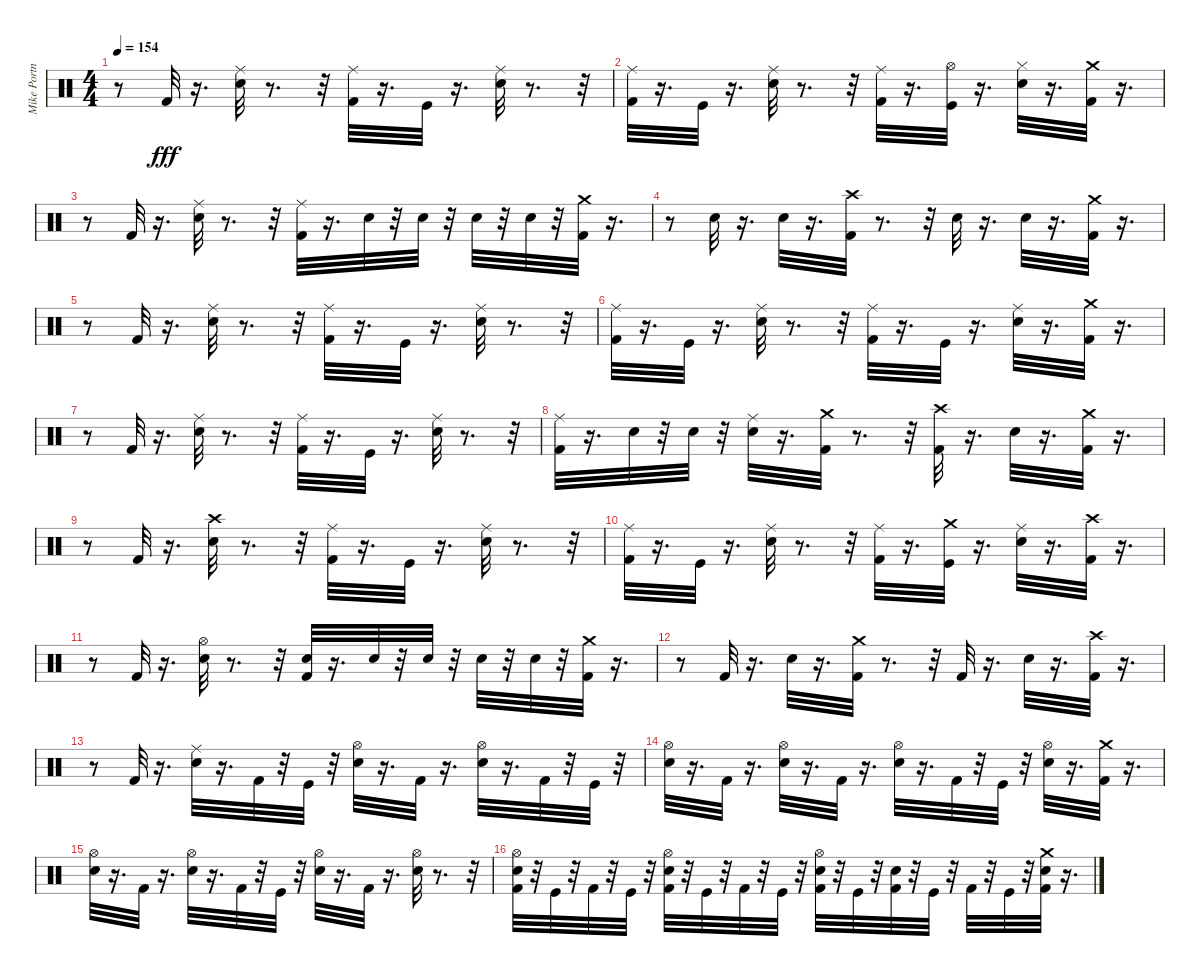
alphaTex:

\track ("Mike Portnoy" "Mike Portn") {instrument percussion}
\staff {score}
\articulation defaults
\ts (4 4)
\tempo 154
\clef neutral
\ks c
r.8{dy fff} "Kick (hit) 2".32 r.16{d} ("Snare (hit) 2" "Ride (middle)").32 r.8{d} r.32 ("Kick (hit) 2" "Ride (middle)").32 r.16{d} "Kick (hit)".32 r.16{d} ("Snare (hit) 2" "Ride (middle)").32 r.8{d} r.32 |
("Kick (hit) 2" "Ride (middle)").32 r.16{d} "Kick (hit)".32 r.16{d} ("Snare (hit) 2" "Ride (middle)").32 r.8{d} r.32 ("Kick (hit) 2" "Ride (middle)").32 r.16{d} ("Kick (hit)" "Hi-Hat (open)").32 r.16{d} ("Snare (hit) 2" "Hi-Hat (closed)").32 r.16{d} ("Kick (hit) 2" "Crash medium (hit)").32 r.16{d} |
r.8 "Kick (hit) 2".32 r.16{d} ("Snare (hit) 2" "Ride (middle)").32 r.8{d} r.32 ("Kick (hit) 2" "Ride (middle)").32 r.16{d} "Snare (hit) 2".32 r.32 "Snare (hit) 2".32 r.32 "Snare (hit) 2".32 r.32 "Snare (hit) 2".32 r.32 ("Kick (hit) 2" "Crash medium (hit)").32 r.16{d} |
r.8 "Snare (hit) 2".32 r.16{d} "Snare (hit) 2".32 r.16{d} ("Kick (hit) 2" "Crash high (hit)").32 r.8{d} r.32 "Snare (hit) 2".32 r.16{d} "Snare (hit) 2".32 r.16{d} ("Kick (hit) 2" "Crash medium (hit)").32 r.16{d} |
r.8 "Kick (hit) 2".32 r.16{d} ("Snare (hit) 2" "Ride (middle)").32 r.8{d} r.32 ("Kick (hit) 2" "Ride (middle)").32 r.16{d} "Kick (hit)".32 r.16{d} ("Snare (hit) 2" "Ride (middle)").32 r.8{d} r.32 |
("Kick (hit) 2" "Ride (middle)").32 r.16{d} "Kick (hit)".32 r.16{d} ("Snare (hit) 2" "Ride (middle)").32 r.8{d} r.32 ("Ride (middle)" "Kick (hit) 2").32 r.16{d} "Kick (hit)".32 r.16{d} ("Snare (hit) 2" "Ride (middle)").32 r.16{d} ("Kick (hit) 2" "Crash medium (hit)").32 r.16{d} |
r.8 "Kick (hit) 2".32 r.16{d} ("Snare (hit) 2" "Ride (middle)").32 r.8{d} r.32 ("Kick (hit) 2" "Ride (middle)").32 r.16{d} "Kick (hit)".32 r.16{d} ("Snare (hit) 2" "Ride (middle)").32 r.8{d} r.32 |
("Kick (hit) 2" "Ride (middle)").32 r.16{d} "Snare (hit) 2".32 r.32 "Snare (hit) 2".32 r.32 ("Snare (hit) 2" "Ride (middle)").32 r.16{d} ("Kick (hit) 2" "Crash medium (hit)").32 r.8{d} r.32 ("Kick (hit) 2" "Crash high (hit)").32 r.16{d} "Snare (hit) 2".32 r.16{d} ("Kick (hit) 2" "Crash medium (hit)").32 r.16{d} |
r.8 "Kick (hit) 2".32 r.16{d} ("Snare (hit) 2" "Crash high (hit)").32 r.8{d} r.32 ("Kick (hit) 2" "Ride (middle)").32 r.16{d} "Kick (hit)".32 r.16{d} ("Snare (hit) 2" "Ride (middle)").32 r.8{d} r.32 |
("Kick (hit) 2" "Ride (middle)").32 r.16{d} "Kick (hit)".32 r.16{d} ("Snare (hit) 2" "Ride (middle)").32 r.8{d} r.32 ("Kick (hit) 2" "Ride (middle)").32 r.16{d} ("Kick (hit)" "Crash medium (hit)").32 r.16{d} ("Snare (hit) 2" "Ride (middle)").32 r.16{d} ("Kick (hit) 2" "Crash high (hit)").32 r.16{d} |
r.8 "Kick (hit) 2".32 r.16{d} ("Snare (hit) 2" "Hi-Hat (open)").32 r.8{d} r.32 ("Snare (hit) 2" "Kick (hit) 2").32 r.16{d} "Snare (hit) 2".32 r.32 "Snare (hit) 2".32 r.32 "Snare (hit) 2".32 r.32 "Snare (hit) 2".32 r.32 ("Crash medium (hit)" "Kick (hit) 2").32 r.16{d} |
r.8 "Kick (hit) 2".32 r.16{d} "Snare (hit) 2".32 r.16{d} ("Crash medium (hit)" "Kick (hit) 2").32 r.8{d} r.32 "Kick (hit) 2".32 r.16{d} "Snare (hit) 2".32 r.16{d} ("Crash high (hit)" "Kick (hit) 2").32 r.16{d} |
r.8 "Kick (hit) 2".32 r.16{d} ("Snare (hit) 2" "Ride (middle)").32 r.16{d} "Kick (hit) 2".32 r.32 "Kick (hit)".32 r.32 ("Snare (hit) 2" "Hi-Hat (open)").32 r.16{d} "Kick (hit) 2".32 r.16{d} ("Snare (hit) 2" "Hi-Hat (open)").32 r.16{d} "Kick (hit) 2".32 r.32 "Kick (hit)".32 r.32 |
("Snare (hit) 2" "Hi-Hat (open)").32 r.16{d} "Kick (hit) 2".32 r.16{d} ("Snare (hit) 2" "Hi-Hat (open)").32 r.16{d} "Kick (hit) 2".32 r.16{d} ("Snare (hit) 2" "Hi-Hat (open)").32 r.16{d} "Kick (hit) 2".32 r.32 "Kick (hit)".32 r.32 ("Snare (hit) 2" "Hi-Hat (open)").32 r.16{d} ("Kick (hit) 2" "Crash medium (hit)").32 r.16{d} |
("Snare (hit) 2" "Hi-Hat (open)").32 r.16{d} "Kick (hit) 2".32 r.16{d} ("Snare (hit) 2" "Hi-Hat (open)").32 r.16{d} "Kick (hit) 2".32 r.32 "Kick (hit)".32 r.32 ("Snare (hit) 2" "Hi-Hat (open)").32 r.16{d} "Kick (hit) 2".32 r.16{d} ("Snare (hit) 2" "Hi-Hat (open)").32 r.8{d} r.32 |
("Kick (hit) 2" "Snare (hit) 2" "Hi-Hat (open)").32 r.32 "Kick (hit)".32 r.32 "Kick (hit) 2".32 r.32 "Kick (hit)".32 r.32 ("Kick (hit) 2" "Snare (hit) 2" "Hi-Hat (open)").32 r.32 "Kick (hit)".32 r.32 "Kick (hit) 2".32 r.32 "Kick (hit)".32 r.32 ("Kick (hit) 2" "Snare (hit) 2" "Hi-Hat (open)").32 r.32 "Kick (hit)".32 r.32 ("Kick (hit) 2" "Snare (hit) 2").32 r.32 "Kick (hit)".32 r.32 "Kick (hit) 2".32 r.32 "Kick (hit)".32 r.32 ("Kick (hit) 2" "Snare (hit) 2" "Crash medium (hit)").32 r.16{d}
